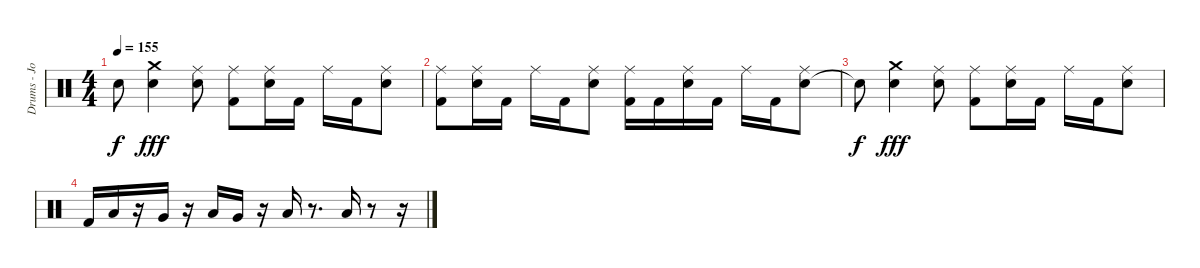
\track ("Drums - Jord" "Drums - Jo") {instrument percussion}
\staff {score}
\articulation defaults
\ts (4 4)
\tempo 155
\clef neutral
\ks c "Snare (hit)"{t}.8{dy f}
("Electric Snare (hit)" "Crash medium (hit)").4{dy fff} ("Electric Snare (hit)" "Ride (middle)").8 ("Kick (hit) 2" "Ride (middle)").8 ("Electric Snare (hit)" "Ride (middle)").16 "Kick (hit) 2".16 "Ride (middle)".16 "Kick (hit) 2".16 ("Electric Snare (hit)" "Ride (middle)").8 |
("Kick (hit) 2" "Ride (middle)").8 ("Electric Snare (hit)" "Ride (middle)").16 "Kick (hit) 2".16 "Ride (middle)".16 "Kick (hit) 2".16 ("Electric Snare (hit)" "Ride (middle)").8 ("Kick (hit) 2" "Ride (middle)").16 "Kick (hit) 2".16 ("Electric Snare (hit)" "Ride (middle)").16 "Kick (hit) 2".16 "Ride (middle)".16 "Kick (hit) 2".16 ("Electric Snare (hit)" "Ride (middle)").8 |
"Snare (hit)"{t}.8{dy f} ("Electric Snare (hit)" "Crash medium (hit)").4{dy fff} ("Electric Snare (hit)" "Ride (middle)").8 ("Kick (hit) 2" "Ride (middle)").8 ("Electric Snare (hit)" "Ride (middle)").16 "Kick (hit) 2".16 "Ride (middle)".16 "Kick (hit) 2".16 ("Electric Snare (hit)" "Ride (middle)").8 |
"Kick (hit) 2".16 "Low Tom (hit)".16 r.16 "Very Low Tom (hit)".16 r.16 "Low Tom (hit)".16 "Very Low Tom (hit)".16 r.16 "Low Tom (hit)".16 r.8{d} "Low Tom (hit)".16 r.8 r.16
